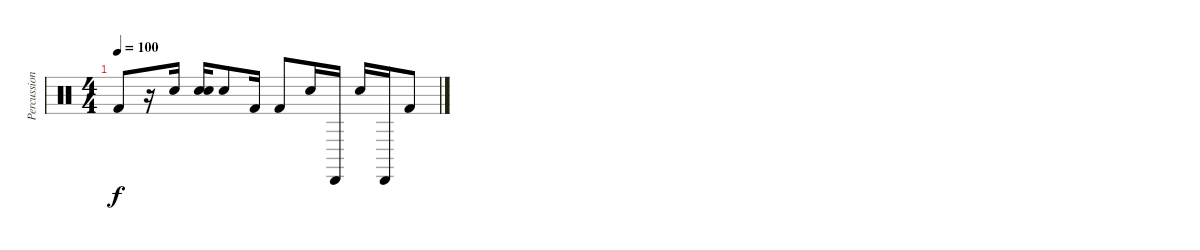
\track ("Percussion" "Percussion") {instrument percussion}
\staff {score}
\articulation defaults
\ts (4 4)
\tempo 100
\clef neutral
\ks c "Kick (hit) 2".8{dy f}
r.16 "Snare (hit) 2".16 ("Hand Clap (hit)" "Snare (hit) 2").16 "Snare (hit) 2".8 "Kick (hit) 2".16 "Kick (hit) 2".8 "Snare (hit) 2".16 "Cabasa (hit)".16 "Hand Clap (hit)".16 "Cabasa (hit)".16 "Kick (hit) 2".8
